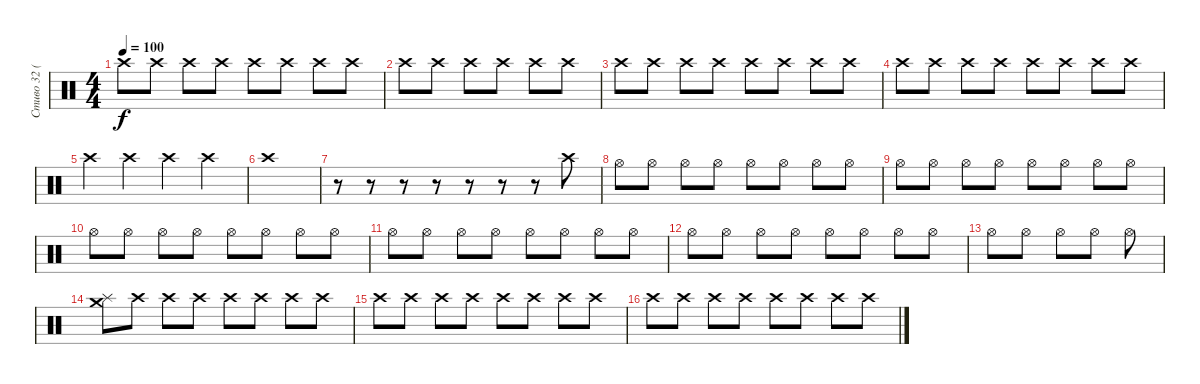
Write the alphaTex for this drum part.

\track ("Стиво 32 (Тарелки)" "Стиво 32 (") {instrument percussion}
\staff {score}
\articulation defaults
\ts (4 4)
\tempo 100
\clef neutral
\ks c "Crash high (hit)".8{dy f} "Crash high (hit)".8 "Crash high (hit)".8 "Crash high (hit)".8 "Crash high (hit)".8 "Crash high (hit)".8 "Crash high (hit)".8 "Crash high (hit)".8
|
"Crash high (hit)".8 "Crash high (hit)".8 "Crash high (hit)".8 "Crash high (hit)".8 "Crash high (hit)".8 "Crash high (hit)".8 |
"Crash high (hit)".8 "Crash high (hit)".8 "Crash high (hit)".8 "Crash high (hit)".8 "Crash high (hit)".8 "Crash high (hit)".8 "Crash high (hit)".8 "Crash high (hit)".8 |
"Crash high (hit)".8 "Crash high (hit)".8 "Crash high (hit)".8 "Crash high (hit)".8 "Crash high (hit)".8 "Crash high (hit)".8 "Crash high (hit)".8 "Crash high (hit)".8 |
"Crash high (hit)".4 "Crash high (hit)".4 "Crash high (hit)".4 "Crash high (hit)".4 |
"Crash high (hit)".1 |
r.8 r.8 r.8 r.8 r.8 r.8 r.8 "Crash high (hit)".8 |
"Hi-Hat (open)".8 "Hi-Hat (open)".8 "Hi-Hat (open)".8 "Hi-Hat (open)".8 "Hi-Hat (open)".8 "Hi-Hat (open)".8 "Hi-Hat (open)".8 "Hi-Hat (open)".8 |
"Hi-Hat (open)".8 "Hi-Hat (open)".8 "Hi-Hat (open)".8 "Hi-Hat (open)".8 "Hi-Hat (open)".8 "Hi-Hat (open)".8 "Hi-Hat (open)".8 "Hi-Hat (open)".8 |
"Hi-Hat (open)".8 "Hi-Hat (open)".8 "Hi-Hat (open)".8 "Hi-Hat (open)".8 "Hi-Hat (open)".8 "Hi-Hat (open)".8 "Hi-Hat (open)".8 "Hi-Hat (open)".8 |
"Hi-Hat (open)".8 "Hi-Hat (open)".8 "Hi-Hat (open)".8 "Hi-Hat (open)".8 "Hi-Hat (open)".8 "Hi-Hat (open)".8 "Hi-Hat (open)".8 "Hi-Hat (open)".8 |
"Hi-Hat (open)".8 "Hi-Hat (open)".8 "Hi-Hat (open)".8 "Hi-Hat (open)".8 "Hi-Hat (open)".8 "Hi-Hat (open)".8 "Hi-Hat (open)".8 "Hi-Hat (open)".8 |
"Hi-Hat (open)".8 "Hi-Hat (open)".8 "Hi-Hat (open)".8 "Hi-Hat (open)".8 "Hi-Hat (open)".8 |
("Splash (hit)" "Crash medium (hit)").8 "Crash high (hit)".8 "Crash high (hit)".8 "Crash high (hit)".8 "Crash high (hit)".8 "Crash high (hit)".8 "Crash high (hit)".8 "Crash high (hit)".8 |
"Crash high (hit)".8 "Crash high (hit)".8 "Crash high (hit)".8 "Crash high (hit)".8 "Crash high (hit)".8 "Crash high (hit)".8 "Crash high (hit)".8 "Crash high (hit)".8 |
"Crash high (hit)".8 "Crash high (hit)".8 "Crash high (hit)".8 "Crash high (hit)".8 "Crash high (hit)".8 "Crash high (hit)".8 "Crash high (hit)".8 "Crash high (hit)".8
